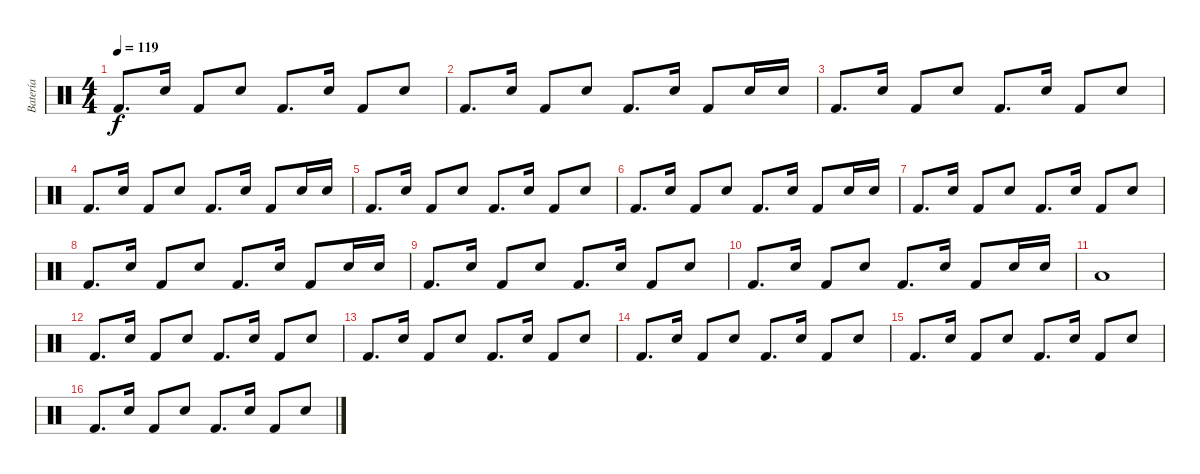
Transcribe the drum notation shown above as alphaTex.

\track ("Batería" "Batería") {instrument percussion}
\staff {score}
\articulation defaults
\ts (4 4)
\tempo 119
\clef neutral
\ks c "Kick (hit) 2".8{d dy f} "Electric Snare (hit)".16 "Kick (hit) 2".8 "Electric Snare (hit)".8 "Kick (hit) 2".8{d} "Electric Snare (hit)".16 "Kick (hit) 2".8 "Electric Snare (hit)".8
|
"Kick (hit) 2".8{d} "Electric Snare (hit)".16 "Kick (hit) 2".8 "Electric Snare (hit)".8 "Kick (hit) 2".8{d} "Electric Snare (hit)".16 "Kick (hit) 2".8 "Electric Snare (hit)".16 "Electric Snare (hit)".16 |
"Kick (hit) 2".8{d} "Electric Snare (hit)".16 "Kick (hit) 2".8 "Electric Snare (hit)".8 "Kick (hit) 2".8{d} "Electric Snare (hit)".16 "Kick (hit) 2".8 "Electric Snare (hit)".8 |
"Kick (hit) 2".8{d} "Electric Snare (hit)".16 "Kick (hit) 2".8 "Electric Snare (hit)".8 "Kick (hit) 2".8{d} "Electric Snare (hit)".16 "Kick (hit) 2".8 "Electric Snare (hit)".16 "Electric Snare (hit)".16 |
"Kick (hit) 2".8{d} "Electric Snare (hit)".16 "Kick (hit) 2".8 "Electric Snare (hit)".8 "Kick (hit) 2".8{d} "Electric Snare (hit)".16 "Kick (hit) 2".8 "Electric Snare (hit)".8 |
"Kick (hit) 2".8{d} "Electric Snare (hit)".16 "Kick (hit) 2".8 "Electric Snare (hit)".8 "Kick (hit) 2".8{d} "Electric Snare (hit)".16 "Kick (hit) 2".8 "Electric Snare (hit)".16 "Electric Snare (hit)".16 |
"Kick (hit) 2".8{d} "Electric Snare (hit)".16 "Kick (hit) 2".8 "Electric Snare (hit)".8 "Kick (hit) 2".8{d} "Electric Snare (hit)".16 "Kick (hit) 2".8 "Electric Snare (hit)".8 |
"Kick (hit) 2".8{d} "Electric Snare (hit)".16 "Kick (hit) 2".8 "Electric Snare (hit)".8 "Kick (hit) 2".8{d} "Electric Snare (hit)".16 "Kick (hit) 2".8 "Electric Snare (hit)".16 "Electric Snare (hit)".16 |
"Kick (hit) 2".8{d} "Electric Snare (hit)".16 "Kick (hit) 2".8 "Electric Snare (hit)".8 "Kick (hit) 2".8{d} "Electric Snare (hit)".16 "Kick (hit) 2".8 "Electric Snare (hit)".8 |
"Kick (hit) 2".8{d} "Electric Snare (hit)".16 "Kick (hit) 2".8 "Electric Snare (hit)".8 "Kick (hit) 2".8{d} "Electric Snare (hit)".16 "Kick (hit) 2".8 "Electric Snare (hit)".16 "Electric Snare (hit)".16 |
"Low Tom (hit)".1 |
"Kick (hit) 2".8{d} "Electric Snare (hit)".16 "Kick (hit) 2".8 "Electric Snare (hit)".8 "Kick (hit) 2".8{d} "Electric Snare (hit)".16 "Kick (hit) 2".8 "Electric Snare (hit)".8 |
"Kick (hit) 2".8{d} "Electric Snare (hit)".16 "Kick (hit) 2".8 "Electric Snare (hit)".8 "Kick (hit) 2".8{d} "Electric Snare (hit)".16 "Kick (hit) 2".8 "Electric Snare (hit)".8 |
"Kick (hit) 2".8{d} "Electric Snare (hit)".16 "Kick (hit) 2".8 "Electric Snare (hit)".8 "Kick (hit) 2".8{d} "Electric Snare (hit)".16 "Kick (hit) 2".8 "Electric Snare (hit)".8 |
"Kick (hit) 2".8{d} "Electric Snare (hit)".16 "Kick (hit) 2".8 "Electric Snare (hit)".8 "Kick (hit) 2".8{d} "Electric Snare (hit)".16 "Kick (hit) 2".8 "Electric Snare (hit)".8 |
"Kick (hit) 2".8{d} "Electric Snare (hit)".16 "Kick (hit) 2".8 "Electric Snare (hit)".8 "Kick (hit) 2".8{d} "Electric Snare (hit)".16 "Kick (hit) 2".8 "Electric Snare (hit)".8
